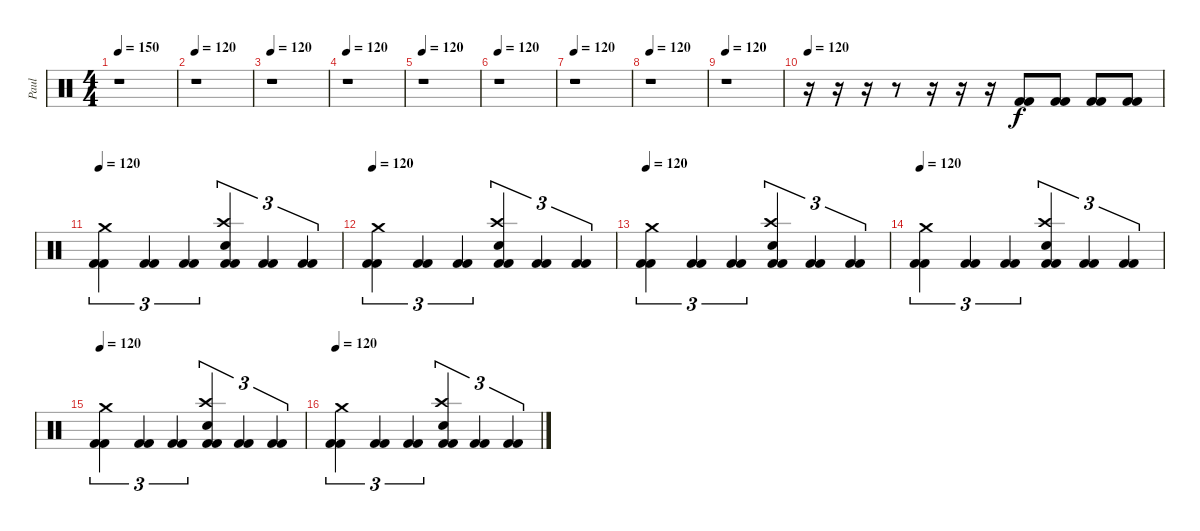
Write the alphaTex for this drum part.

\track ("Paul " "Paul ") {instrument percussion}
\staff {score}
\articulation defaults
\ts (4 4)
\tempo 150
\tempo 120
\tempo 150
\clef neutral
\ks c
r.1{dy f} |
\tempo 120
r.1 |
\tempo 120
r.1 |
\tempo 120
r.1 |
\tempo 120
r.1 |
\tempo 120
r.1 |
\tempo 120
r.1 |
\tempo 120
r.1 |
\tempo 120
r.1 |
\tempo 120
r.16 r.16 r.16 r.8 r.16 r.16 r.16 ("Kick (hit) 2" "Kick (hit) 2").8 ("Kick (hit) 2" "Kick (hit) 2").8 ("Kick (hit) 2" "Kick (hit) 2").8 ("Kick (hit) 2" "Kick (hit) 2").8 |
\tempo 110
\tempo 120
("Crash medium (hit)" "Kick (hit) 2" "Kick (hit) 2").4{tu (3 2)} ("Kick (hit) 2" "Kick (hit) 2").4{tu (3 2)} ("Kick (hit) 2" "Kick (hit) 2").4{tu (3 2)} ("Crash high (hit)" "Snare (hit) 2" "Kick (hit) 2" "Kick (hit) 2").4{tu (3 2)} ("Kick (hit) 2" "Kick (hit) 2").4{tu (3 2)} ("Kick (hit) 2" "Kick (hit) 2").4{tu (3 2)} |
\tempo 120
("Crash medium (hit)" "Kick (hit) 2" "Kick (hit) 2").4{tu (3 2)} ("Kick (hit) 2" "Kick (hit) 2").4{tu (3 2)} ("Kick (hit) 2" "Kick (hit) 2").4{tu (3 2)} ("Crash high (hit)" "Snare (hit) 2" "Kick (hit) 2" "Kick (hit) 2").4{tu (3 2)} ("Kick (hit) 2" "Kick (hit) 2").4{tu (3 2)} ("Kick (hit) 2" "Kick (hit) 2").4{tu (3 2)} |
\tempo 120
("Crash medium (hit)" "Kick (hit) 2" "Kick (hit) 2").4{tu (3 2)} ("Kick (hit) 2" "Kick (hit) 2").4{tu (3 2)} ("Kick (hit) 2" "Kick (hit) 2").4{tu (3 2)} ("Crash high (hit)" "Snare (hit) 2" "Kick (hit) 2" "Kick (hit) 2").4{tu (3 2)} ("Kick (hit) 2" "Kick (hit) 2").4{tu (3 2)} ("Kick (hit) 2" "Kick (hit) 2").4{tu (3 2)} |
\tempo 120
("Crash medium (hit)" "Kick (hit) 2" "Kick (hit) 2").4{tu (3 2)} ("Kick (hit) 2" "Kick (hit) 2").4{tu (3 2)} ("Kick (hit) 2" "Kick (hit) 2").4{tu (3 2)} ("Crash high (hit)" "Snare (hit) 2" "Kick (hit) 2" "Kick (hit) 2").4{tu (3 2)} ("Kick (hit) 2" "Kick (hit) 2").4{tu (3 2)} ("Kick (hit) 2" "Kick (hit) 2").4{tu (3 2)} |
\tempo 120
("Crash medium (hit)" "Kick (hit) 2" "Kick (hit) 2").4{tu (3 2)} ("Kick (hit) 2" "Kick (hit) 2").4{tu (3 2)} ("Kick (hit) 2" "Kick (hit) 2").4{tu (3 2)} ("Crash high (hit)" "Snare (hit) 2" "Kick (hit) 2" "Kick (hit) 2").4{tu (3 2)} ("Kick (hit) 2" "Kick (hit) 2").4{tu (3 2)} ("Kick (hit) 2" "Kick (hit) 2").4{tu (3 2)} |
\tempo 120
("Crash medium (hit)" "Kick (hit) 2" "Kick (hit) 2").4{tu (3 2)} ("Kick (hit) 2" "Kick (hit) 2").4{tu (3 2)} ("Kick (hit) 2" "Kick (hit) 2").4{tu (3 2)} ("Crash high (hit)" "Snare (hit) 2" "Kick (hit) 2" "Kick (hit) 2").4{tu (3 2)} ("Kick (hit) 2" "Kick (hit) 2").4{tu (3 2)} ("Kick (hit) 2" "Kick (hit) 2").4{tu (3 2)}
